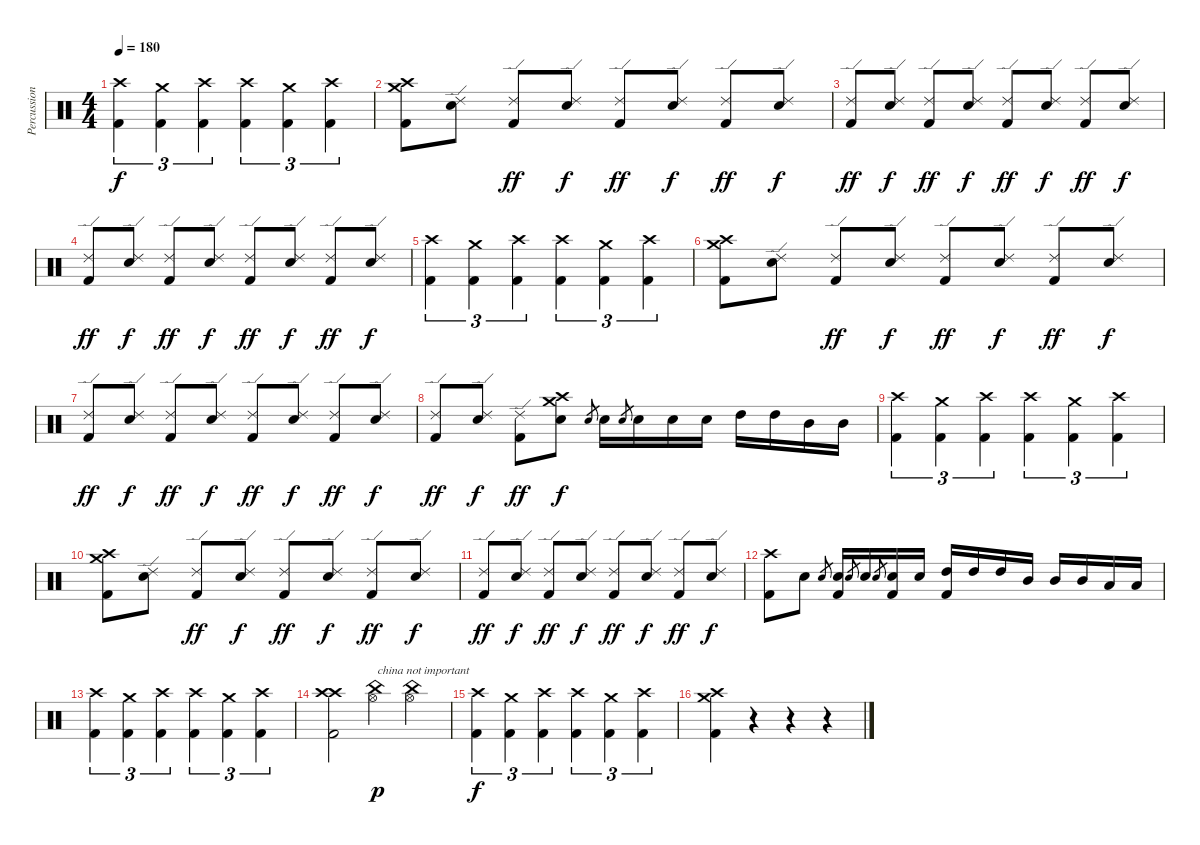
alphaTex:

\track ("Percussion" "Percussion") {instrument percussion}
\staff {score}
\articulation defaults
\ts (4 4)
\tempo 180
\clef neutral
\ks c
("Crash high (hit)" "Kick (hit) 2").4{tu (3 2) dy f} ("Crash medium (hit)" "Kick (hit) 2").4{tu (3 2)} ("Crash high (hit)" "Kick (hit) 2").4{tu (3 2)} ("Crash high (hit)" "Kick (hit) 2").4{tu (3 2)} ("Crash medium (hit)" "Kick (hit) 2").4{tu (3 2)} ("Crash high (hit)" "Kick (hit) 2").4{tu (3 2)} |
("Crash high (hit)" "Crash medium (hit)" "Kick (hit) 2").8 ("Ride (edge) 2" "Snare (hit) 2").8 ("Ride (edge) 2" "Kick (hit) 2").8{dy ff} ("Ride (edge) 2" "Snare (hit) 2").8{dy f} ("Ride (edge) 2" "Kick (hit) 2").8{dy ff} ("Ride (edge) 2" "Snare (hit) 2").8{dy f} ("Ride (edge) 2" "Kick (hit) 2").8{dy ff} ("Ride (edge) 2" "Snare (hit) 2").8{dy f} |
("Ride (edge) 2" "Kick (hit) 2").8{dy ff} ("Ride (edge) 2" "Snare (hit) 2").8{dy f} ("Ride (edge) 2" "Kick (hit) 2").8{dy ff} ("Ride (edge) 2" "Snare (hit) 2").8{dy f} ("Ride (edge) 2" "Kick (hit) 2").8{dy ff} ("Ride (edge) 2" "Snare (hit) 2").8{dy f} ("Ride (edge) 2" "Kick (hit) 2").8{dy ff} ("Ride (edge) 2" "Snare (hit) 2").8{dy f} |
("Ride (edge) 2" "Kick (hit) 2").8{dy ff} ("Ride (edge) 2" "Snare (hit) 2").8{dy f} ("Ride (edge) 2" "Kick (hit) 2").8{dy ff} ("Ride (edge) 2" "Snare (hit) 2").8{dy f} ("Ride (edge) 2" "Kick (hit) 2").8{dy ff} ("Ride (edge) 2" "Snare (hit) 2").8{dy f} ("Ride (edge) 2" "Kick (hit) 2").8{dy ff} ("Ride (edge) 2" "Snare (hit) 2").8{dy f} |
("Crash high (hit)" "Kick (hit) 2").4{tu (3 2)} ("Crash medium (hit)" "Kick (hit) 2").4{tu (3 2)} ("Crash high (hit)" "Kick (hit) 2").4{tu (3 2)} ("Crash high (hit)" "Kick (hit) 2").4{tu (3 2)} ("Crash medium (hit)" "Kick (hit) 2").4{tu (3 2)} ("Crash high (hit)" "Kick (hit) 2").4{tu (3 2)} |
("Crash high (hit)" "Crash medium (hit)" "Kick (hit) 2").8 ("Ride (edge) 2" "Snare (hit) 2").8 ("Ride (edge) 2" "Kick (hit) 2").8{dy ff} ("Ride (edge) 2" "Snare (hit) 2").8{dy f} ("Ride (edge) 2" "Kick (hit) 2").8{dy ff} ("Ride (edge) 2" "Snare (hit) 2").8{dy f} ("Ride (edge) 2" "Kick (hit) 2").8{dy ff} ("Ride (edge) 2" "Snare (hit) 2").8{dy f} |
("Ride (edge) 2" "Kick (hit) 2").8{dy ff} ("Ride (edge) 2" "Snare (hit) 2").8{dy f} ("Ride (edge) 2" "Kick (hit) 2").8{dy ff} ("Ride (edge) 2" "Snare (hit) 2").8{dy f} ("Ride (edge) 2" "Kick (hit) 2").8{dy ff} ("Ride (edge) 2" "Snare (hit) 2").8{dy f} ("Ride (edge) 2" "Kick (hit) 2").8{dy ff} ("Ride (edge) 2" "Snare (hit) 2").8{dy f} |
("Ride (edge) 2" "Kick (hit) 2").8{dy ff} ("Ride (edge) 2" "Snare (hit) 2").8{dy f} ("Ride (edge) 2" "Kick (hit) 2").8{dy ff} ("Crash high (hit)" "Crash medium (hit)" "Snare (hit) 2").8{dy f} "Snare (hit) 2".8{gr} "Snare (hit) 2".16 "Snare (hit) 2".8{gr} "Snare (hit) 2".16 "Snare (hit) 2".16 "Snare (hit) 2".16 "High Tom (hit)".16 "High Tom (hit)".16 "Mid Tom (hit)".16 "Mid Tom (hit)".16 |
("Crash high (hit)" "Kick (hit) 2").4{tu (3 2)} ("Crash medium (hit)" "Kick (hit) 2").4{tu (3 2)} ("Crash high (hit)" "Kick (hit) 2").4{tu (3 2)} ("Crash high (hit)" "Kick (hit) 2").4{tu (3 2)} ("Crash medium (hit)" "Kick (hit) 2").4{tu (3 2)} ("Crash high (hit)" "Kick (hit) 2").4{tu (3 2)} |
("Crash high (hit)" "Crash medium (hit)" "Kick (hit) 2").8 ("Ride (edge) 2" "Snare (hit) 2").8 ("Ride (edge) 2" "Kick (hit) 2").8{dy ff} ("Ride (edge) 2" "Snare (hit) 2").8{dy f} ("Ride (edge) 2" "Kick (hit) 2").8{dy ff} ("Ride (edge) 2" "Snare (hit) 2").8{dy f} ("Ride (edge) 2" "Kick (hit) 2").8{dy ff} ("Ride (edge) 2" "Snare (hit) 2").8{dy f} |
("Ride (edge) 2" "Kick (hit) 2").8{dy ff} ("Ride (edge) 2" "Snare (hit) 2").8{dy f} ("Ride (edge) 2" "Kick (hit) 2").8{dy ff} ("Ride (edge) 2" "Snare (hit) 2").8{dy f} ("Ride (edge) 2" "Kick (hit) 2").8{dy ff} ("Ride (edge) 2" "Snare (hit) 2").8{dy f} ("Ride (edge) 2" "Kick (hit) 2").8{dy ff} ("Ride (edge) 2" "Snare (hit) 2").8{dy f} |
("Crash high (hit)" "Kick (hit) 2").8 "Snare (hit) 2".8 "Snare (hit) 2".8{gr} ("Snare (hit) 2" "Kick (hit) 2").16 "Snare (hit) 2".8{gr} "Snare (hit) 2".16 "Snare (hit) 2".8{gr} ("Snare (hit) 2" "Kick (hit) 2").16 "Snare (hit) 2".16 ("High Tom (hit)" "Kick (hit) 2").16 "High Tom (hit)".16 "High Tom (hit)".16 "Mid Tom (hit)".16 "Mid Tom (hit)".16 "Mid Tom (hit)".16 "Low Tom (hit)".16 "Low Tom (hit)".16 |
("Crash high (hit)" "Kick (hit) 2").4{tu (3 2)} ("Crash medium (hit)" "Kick (hit) 2").4{tu (3 2)} ("Crash high (hit)" "Kick (hit) 2").4{tu (3 2)} ("Crash high (hit)" "Kick (hit) 2").4{tu (3 2)} ("Crash medium (hit)" "Kick (hit) 2").4{tu (3 2)} ("Crash high (hit)" "Kick (hit) 2").4{tu (3 2)} |
("Crash high (hit)" "Crash high (hit)" "Kick (hit) 2").2 ("China (hit)" "Hi-Hat (open)").4{txt "china not important" dy p} ("China (hit)" "Hi-Hat (open)").4 |
("Crash high (hit)" "Kick (hit) 2").4{tu (3 2) dy f} ("Crash medium (hit)" "Kick (hit) 2").4{tu (3 2)} ("Crash high (hit)" "Kick (hit) 2").4{tu (3 2)} ("Crash high (hit)" "Kick (hit) 2").4{tu (3 2)} ("Crash medium (hit)" "Kick (hit) 2").4{tu (3 2)} ("Crash high (hit)" "Kick (hit) 2").4{tu (3 2)} |
("Crash high (hit)" "Crash medium (hit)" "Kick (hit) 2").4 r.4 r.4 r.4
